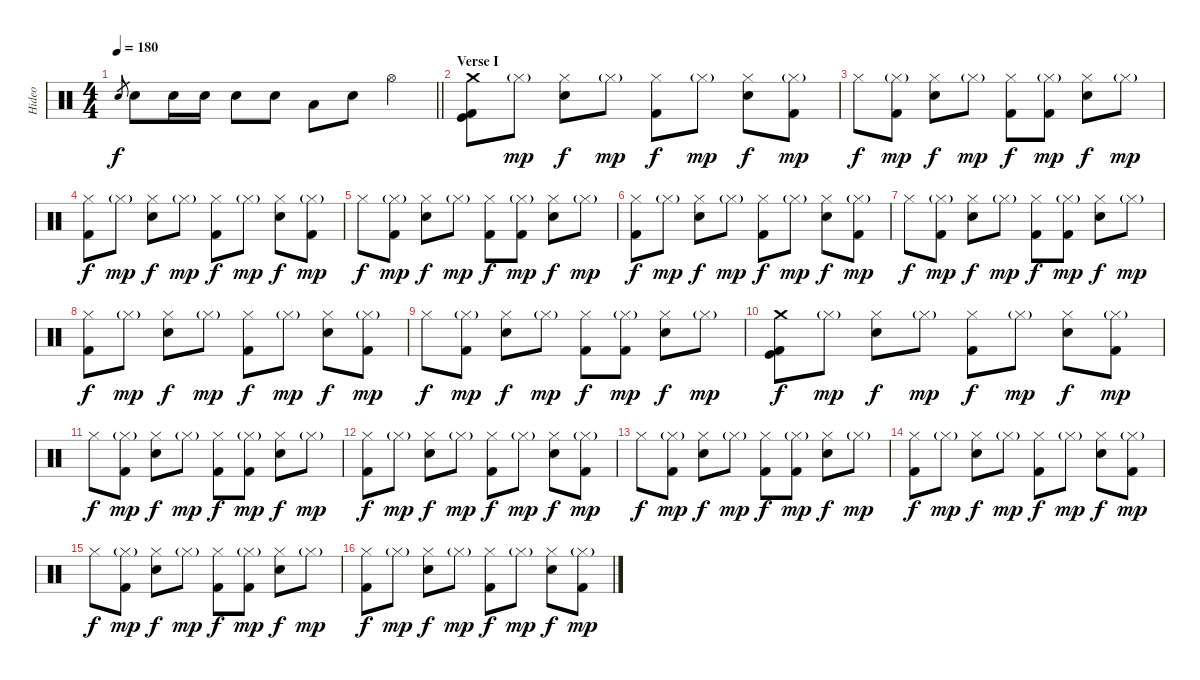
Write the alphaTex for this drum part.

\track ("Hideo" "Hideo") {instrument percussion}
\staff {score}
\articulation defaults
\ts (4 4)
\tempo 180
\clef neutral
\barLineRight lightlight
\ks c "Electric Snare (hit)".8{gr dy f} "Electric Snare (hit)".8 "Electric Snare (hit)".16 "Electric Snare (hit)".16 "Electric Snare (hit)".8 "Electric Snare (hit)".8 "Low Tom (hit)".8 "Electric Snare (hit)".8 "Hi-Hat (open)".4
|
\section ("" "Verse I")
("Crash medium (hit)" "Kick (hit) 2" "Kick (hit)").8 "Hi-Hat (closed)"{g}.8{dy mp} ("Hi-Hat (closed)" "Electric Snare (hit)").8{dy f} "Hi-Hat (closed)"{g}.8{dy mp} ("Hi-Hat (closed)" "Kick (hit) 2").8{dy f} "Hi-Hat (closed)"{g}.8{dy mp} ("Hi-Hat (closed)" "Electric Snare (hit)").8{dy f} ("Hi-Hat (closed)"{g} "Kick (hit) 2").8{dy mp} |
"Hi-Hat (closed)".8{dy f} ("Hi-Hat (closed)"{g} "Kick (hit) 2").8{dy mp} ("Hi-Hat (closed)" "Electric Snare (hit)").8{dy f} "Hi-Hat (closed)"{g}.8{dy mp} ("Hi-Hat (closed)" "Kick (hit) 2").8{dy f} ("Hi-Hat (closed)"{g} "Kick (hit) 2").8{dy mp} ("Hi-Hat (closed)" "Electric Snare (hit)").8{dy f} "Hi-Hat (closed)"{g}.8{dy mp} |
("Hi-Hat (closed)" "Kick (hit) 2").8{dy f} "Hi-Hat (closed)"{g}.8{dy mp} ("Hi-Hat (closed)" "Electric Snare (hit)").8{dy f} "Hi-Hat (closed)"{g}.8{dy mp} ("Hi-Hat (closed)" "Kick (hit) 2").8{dy f} "Hi-Hat (closed)"{g}.8{dy mp} ("Hi-Hat (closed)" "Electric Snare (hit)").8{dy f} ("Hi-Hat (closed)"{g} "Kick (hit) 2").8{dy mp} |
"Hi-Hat (closed)".8{dy f} ("Hi-Hat (closed)"{g} "Kick (hit) 2").8{dy mp} ("Hi-Hat (closed)" "Electric Snare (hit)").8{dy f} "Hi-Hat (closed)"{g}.8{dy mp} ("Hi-Hat (closed)" "Kick (hit) 2").8{dy f} ("Hi-Hat (closed)"{g} "Kick (hit) 2").8{dy mp} ("Hi-Hat (closed)" "Electric Snare (hit)").8{dy f} "Hi-Hat (closed)"{g}.8{dy mp} |
("Hi-Hat (closed)" "Kick (hit) 2").8{dy f} "Hi-Hat (closed)"{g}.8{dy mp} ("Hi-Hat (closed)" "Electric Snare (hit)").8{dy f} "Hi-Hat (closed)"{g}.8{dy mp} ("Hi-Hat (closed)" "Kick (hit) 2").8{dy f} "Hi-Hat (closed)"{g}.8{dy mp} ("Hi-Hat (closed)" "Electric Snare (hit)").8{dy f} ("Hi-Hat (closed)"{g} "Kick (hit) 2").8{dy mp} |
"Hi-Hat (closed)".8{dy f} ("Hi-Hat (closed)"{g} "Kick (hit) 2").8{dy mp} ("Hi-Hat (closed)" "Electric Snare (hit)").8{dy f} "Hi-Hat (closed)"{g}.8{dy mp} ("Hi-Hat (closed)" "Kick (hit) 2").8{dy f} ("Hi-Hat (closed)"{g} "Kick (hit) 2").8{dy mp} ("Hi-Hat (closed)" "Electric Snare (hit)").8{dy f} "Hi-Hat (closed)"{g}.8{dy mp} |
("Hi-Hat (closed)" "Kick (hit) 2").8{dy f} "Hi-Hat (closed)"{g}.8{dy mp} ("Hi-Hat (closed)" "Electric Snare (hit)").8{dy f} "Hi-Hat (closed)"{g}.8{dy mp} ("Hi-Hat (closed)" "Kick (hit) 2").8{dy f} "Hi-Hat (closed)"{g}.8{dy mp} ("Hi-Hat (closed)" "Electric Snare (hit)").8{dy f} ("Hi-Hat (closed)"{g} "Kick (hit) 2").8{dy mp} |
"Hi-Hat (closed)".8{dy f} ("Hi-Hat (closed)"{g} "Kick (hit) 2").8{dy mp} ("Hi-Hat (closed)" "Electric Snare (hit)").8{dy f} "Hi-Hat (closed)"{g}.8{dy mp} ("Hi-Hat (closed)" "Kick (hit) 2").8{dy f} ("Hi-Hat (closed)"{g} "Kick (hit) 2").8{dy mp} ("Hi-Hat (closed)" "Electric Snare (hit)").8{dy f} "Hi-Hat (closed)"{g}.8{dy mp} |
("Crash medium (hit)" "Kick (hit) 2" "Kick (hit)").8{dy f} "Hi-Hat (closed)"{g}.8{dy mp} ("Hi-Hat (closed)" "Electric Snare (hit)").8{dy f} "Hi-Hat (closed)"{g}.8{dy mp} ("Hi-Hat (closed)" "Kick (hit) 2").8{dy f} "Hi-Hat (closed)"{g}.8{dy mp} ("Hi-Hat (closed)" "Electric Snare (hit)").8{dy f} ("Hi-Hat (closed)"{g} "Kick (hit) 2").8{dy mp} |
"Hi-Hat (closed)".8{dy f} ("Hi-Hat (closed)"{g} "Kick (hit) 2").8{dy mp} ("Hi-Hat (closed)" "Electric Snare (hit)").8{dy f} "Hi-Hat (closed)"{g}.8{dy mp} ("Hi-Hat (closed)" "Kick (hit) 2").8{dy f} ("Hi-Hat (closed)"{g} "Kick (hit) 2").8{dy mp} ("Hi-Hat (closed)" "Electric Snare (hit)").8{dy f} "Hi-Hat (closed)"{g}.8{dy mp} |
("Hi-Hat (closed)" "Kick (hit) 2").8{dy f} "Hi-Hat (closed)"{g}.8{dy mp} ("Hi-Hat (closed)" "Electric Snare (hit)").8{dy f} "Hi-Hat (closed)"{g}.8{dy mp} ("Hi-Hat (closed)" "Kick (hit) 2").8{dy f} "Hi-Hat (closed)"{g}.8{dy mp} ("Hi-Hat (closed)" "Electric Snare (hit)").8{dy f} ("Hi-Hat (closed)"{g} "Kick (hit) 2").8{dy mp} |
"Hi-Hat (closed)".8{dy f} ("Hi-Hat (closed)"{g} "Kick (hit) 2").8{dy mp} ("Hi-Hat (closed)" "Electric Snare (hit)").8{dy f} "Hi-Hat (closed)"{g}.8{dy mp} ("Hi-Hat (closed)" "Kick (hit) 2").8{dy f} ("Hi-Hat (closed)"{g} "Kick (hit) 2").8{dy mp} ("Hi-Hat (closed)" "Electric Snare (hit)").8{dy f} "Hi-Hat (closed)"{g}.8{dy mp} |
("Hi-Hat (closed)" "Kick (hit) 2").8{dy f} "Hi-Hat (closed)"{g}.8{dy mp} ("Hi-Hat (closed)" "Electric Snare (hit)").8{dy f} "Hi-Hat (closed)"{g}.8{dy mp} ("Hi-Hat (closed)" "Kick (hit) 2").8{dy f} "Hi-Hat (closed)"{g}.8{dy mp} ("Hi-Hat (closed)" "Electric Snare (hit)").8{dy f} ("Hi-Hat (closed)"{g} "Kick (hit) 2").8{dy mp} |
"Hi-Hat (closed)".8{dy f} ("Hi-Hat (closed)"{g} "Kick (hit) 2").8{dy mp} ("Hi-Hat (closed)" "Electric Snare (hit)").8{dy f} "Hi-Hat (closed)"{g}.8{dy mp} ("Hi-Hat (closed)" "Kick (hit) 2").8{dy f} ("Hi-Hat (closed)"{g} "Kick (hit) 2").8{dy mp} ("Hi-Hat (closed)" "Electric Snare (hit)").8{dy f} "Hi-Hat (closed)"{g}.8{dy mp} |
("Hi-Hat (closed)" "Kick (hit) 2").8{dy f} "Hi-Hat (closed)"{g}.8{dy mp} ("Hi-Hat (closed)" "Electric Snare (hit)").8{dy f} "Hi-Hat (closed)"{g}.8{dy mp} ("Hi-Hat (closed)" "Kick (hit) 2").8{dy f} "Hi-Hat (closed)"{g}.8{dy mp} ("Hi-Hat (closed)" "Electric Snare (hit)").8{dy f} ("Hi-Hat (closed)"{g} "Kick (hit) 2").8{dy mp}
